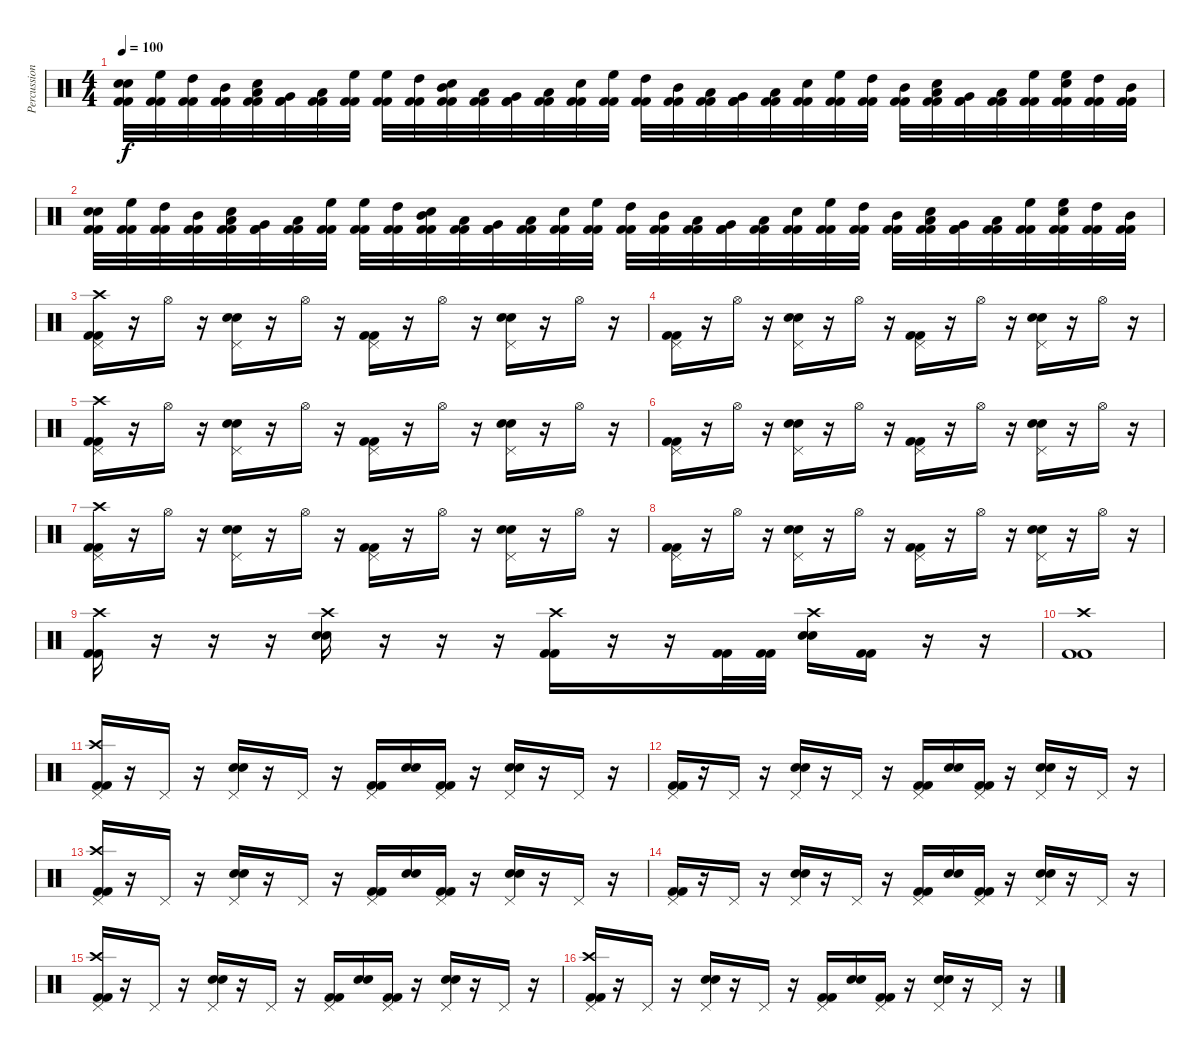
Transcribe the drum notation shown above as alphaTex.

\track ("Percussions" "Percussion") {instrument percussion}
\staff {score}
\articulation defaults
\ts (4 4)
\tempo 100
\clef neutral
\ks c
("Electric Snare (hit)" "Electric Snare (hit)" "Kick (hit) 2" "Kick (hit) 2").32{dy f} ("High Floor Tom (hit)" "Kick (hit) 2" "Kick (hit) 2").32 ("High Tom (hit)" "Kick (hit) 2" "Kick (hit) 2").32 ("Mid Tom (hit)" "Kick (hit) 2" "Kick (hit) 2").32 ("Low Tom (hit)" "Electric Snare (hit)" "Kick (hit) 2" "Kick (hit) 2").32 ("Very Low Tom (hit)" "Kick (hit) 2" "Kick (hit) 2").32 ("Low Floor Tom (hit)" "Kick (hit) 2" "Kick (hit) 2").32 ("High Floor Tom (hit)" "Kick (hit) 2" "Kick (hit) 2").32 ("High Floor Tom (hit)" "Kick (hit) 2" "Kick (hit) 2").32 ("High Tom (hit)" "Kick (hit) 2" "Kick (hit) 2").32 ("Mid Tom (hit)" "Electric Snare (hit)" "Kick (hit) 2" "Kick (hit) 2").32 ("Low Tom (hit)" "Kick (hit) 2" "Kick (hit) 2").32 ("Very Low Tom (hit)" "Kick (hit) 2" "Kick (hit) 2").32 ("Low Floor Tom (hit)" "Kick (hit) 2" "Kick (hit) 2").32 ("Electric Snare (hit)" "Kick (hit) 2" "Kick (hit) 2").32 ("High Floor Tom (hit)" "Kick (hit) 2" "Kick (hit) 2").32 ("High Tom (hit)" "Kick (hit) 2" "Kick (hit) 2").32 ("Mid Tom (hit)" "Kick (hit) 2" "Kick (hit) 2").32 ("Low Tom (hit)" "Kick (hit) 2" "Kick (hit) 2").32 ("Very Low Tom (hit)" "Kick (hit) 2" "Kick (hit) 2").32 ("Low Floor Tom (hit)" "Kick (hit) 2" "Kick (hit) 2").32 ("Electric Snare (hit)" "Kick (hit) 2" "Kick (hit) 2").32 ("High Floor Tom (hit)" "Kick (hit) 2" "Kick (hit) 2").32 ("High Tom (hit)" "Kick (hit) 2" "Kick (hit) 2").32 ("Mid Tom (hit)" "Kick (hit) 2" "Kick (hit) 2").32 ("Low Tom (hit)" "Electric Snare (hit)" "Kick (hit) 2" "Kick (hit) 2").32 ("Very Low Tom (hit)" "Kick (hit) 2" "Kick (hit) 2").32 ("Low Floor Tom (hit)" "Kick (hit) 2" "Kick (hit) 2").32 ("High Floor Tom (hit)" "Kick (hit) 2" "Kick (hit) 2").32 ("High Floor Tom (hit)" "Electric Snare (hit)" "Kick (hit) 2" "Kick (hit) 2").32 ("High Tom (hit)" "Kick (hit) 2" "Kick (hit) 2").32 ("Mid Tom (hit)" "Kick (hit) 2" "Kick (hit) 2").32 |
("Electric Snare (hit)" "Electric Snare (hit)" "Kick (hit) 2" "Kick (hit) 2").32 ("High Floor Tom (hit)" "Kick (hit) 2" "Kick (hit) 2").32 ("High Tom (hit)" "Kick (hit) 2" "Kick (hit) 2").32 ("Mid Tom (hit)" "Kick (hit) 2" "Kick (hit) 2").32 ("Low Tom (hit)" "Electric Snare (hit)" "Kick (hit) 2" "Kick (hit) 2").32 ("Very Low Tom (hit)" "Kick (hit) 2" "Kick (hit) 2").32 ("Low Floor Tom (hit)" "Kick (hit) 2" "Kick (hit) 2").32 ("High Floor Tom (hit)" "Kick (hit) 2" "Kick (hit) 2").32 ("High Floor Tom (hit)" "Kick (hit) 2" "Kick (hit) 2").32 ("High Tom (hit)" "Kick (hit) 2" "Kick (hit) 2").32 ("Mid Tom (hit)" "Electric Snare (hit)" "Kick (hit) 2" "Kick (hit) 2").32 ("Low Tom (hit)" "Kick (hit) 2" "Kick (hit) 2").32 ("Very Low Tom (hit)" "Kick (hit) 2" "Kick (hit) 2").32 ("Low Floor Tom (hit)" "Kick (hit) 2" "Kick (hit) 2").32 ("Electric Snare (hit)" "Kick (hit) 2" "Kick (hit) 2").32 ("High Floor Tom (hit)" "Kick (hit) 2" "Kick (hit) 2").32 ("High Tom (hit)" "Kick (hit) 2" "Kick (hit) 2").32 ("Mid Tom (hit)" "Kick (hit) 2" "Kick (hit) 2").32 ("Low Tom (hit)" "Kick (hit) 2" "Kick (hit) 2").32 ("Very Low Tom (hit)" "Kick (hit) 2" "Kick (hit) 2").32 ("Low Floor Tom (hit)" "Kick (hit) 2" "Kick (hit) 2").32 ("Electric Snare (hit)" "Kick (hit) 2" "Kick (hit) 2").32 ("High Floor Tom (hit)" "Kick (hit) 2" "Kick (hit) 2").32 ("High Tom (hit)" "Kick (hit) 2" "Kick (hit) 2").32 ("Mid Tom (hit)" "Kick (hit) 2" "Kick (hit) 2").32 ("Low Tom (hit)" "Electric Snare (hit)" "Kick (hit) 2" "Kick (hit) 2").32 ("Very Low Tom (hit)" "Kick (hit) 2" "Kick (hit) 2").32 ("Low Floor Tom (hit)" "Kick (hit) 2" "Kick (hit) 2").32 ("High Floor Tom (hit)" "Kick (hit) 2" "Kick (hit) 2").32 ("High Floor Tom (hit)" "Electric Snare (hit)" "Kick (hit) 2" "Kick (hit) 2").32 ("High Tom (hit)" "Kick (hit) 2" "Kick (hit) 2").32 ("Mid Tom (hit)" "Kick (hit) 2" "Kick (hit) 2").32 |
("Crash high (hit)" "Pedal Hi-Hat (hit)" "Kick (hit) 2" "Kick (hit) 2").16 r.16 "Hi-Hat (open)".16 r.16 ("Pedal Hi-Hat (hit)" "Electric Snare (hit)" "Electric Snare (hit)").16 r.16 "Hi-Hat (open)".16 r.16 ("Pedal Hi-Hat (hit)" "Kick (hit) 2" "Kick (hit) 2").16 r.16 "Hi-Hat (open)".16 r.16 ("Pedal Hi-Hat (hit)" "Electric Snare (hit)" "Electric Snare (hit)").16 r.16 "Hi-Hat (open)".16 r.16 |
("Pedal Hi-Hat (hit)" "Kick (hit) 2" "Kick (hit) 2").16 r.16 "Hi-Hat (open)".16 r.16 ("Pedal Hi-Hat (hit)" "Electric Snare (hit)" "Electric Snare (hit)").16 r.16 "Hi-Hat (open)".16 r.16 ("Pedal Hi-Hat (hit)" "Kick (hit) 2" "Kick (hit) 2").16 r.16 "Hi-Hat (open)".16 r.16 ("Pedal Hi-Hat (hit)" "Electric Snare (hit)" "Electric Snare (hit)").16 r.16 "Hi-Hat (open)".16 r.16 |
("Crash high (hit)" "Pedal Hi-Hat (hit)" "Kick (hit) 2" "Kick (hit) 2").16 r.16 "Hi-Hat (open)".16 r.16 ("Pedal Hi-Hat (hit)" "Electric Snare (hit)" "Electric Snare (hit)").16 r.16 "Hi-Hat (open)".16 r.16 ("Pedal Hi-Hat (hit)" "Kick (hit) 2" "Kick (hit) 2").16 r.16 "Hi-Hat (open)".16 r.16 ("Pedal Hi-Hat (hit)" "Electric Snare (hit)" "Electric Snare (hit)").16 r.16 "Hi-Hat (open)".16 r.16 |
("Pedal Hi-Hat (hit)" "Kick (hit) 2" "Kick (hit) 2").16 r.16 "Hi-Hat (open)".16 r.16 ("Pedal Hi-Hat (hit)" "Electric Snare (hit)" "Electric Snare (hit)").16 r.16 "Hi-Hat (open)".16 r.16 ("Pedal Hi-Hat (hit)" "Kick (hit) 2" "Kick (hit) 2").16 r.16 "Hi-Hat (open)".16 r.16 ("Pedal Hi-Hat (hit)" "Electric Snare (hit)" "Electric Snare (hit)").16 r.16 "Hi-Hat (open)".16 r.16 |
("Crash high (hit)" "Pedal Hi-Hat (hit)" "Kick (hit) 2" "Kick (hit) 2").16 r.16 "Hi-Hat (open)".16 r.16 ("Pedal Hi-Hat (hit)" "Electric Snare (hit)" "Electric Snare (hit)").16 r.16 "Hi-Hat (open)".16 r.16 ("Pedal Hi-Hat (hit)" "Kick (hit) 2" "Kick (hit) 2").16 r.16 "Hi-Hat (open)".16 r.16 ("Pedal Hi-Hat (hit)" "Electric Snare (hit)" "Electric Snare (hit)").16 r.16 "Hi-Hat (open)".16 r.16 |
("Pedal Hi-Hat (hit)" "Kick (hit) 2" "Kick (hit) 2").16 r.16 "Hi-Hat (open)".16 r.16 ("Pedal Hi-Hat (hit)" "Electric Snare (hit)" "Electric Snare (hit)").16 r.16 "Hi-Hat (open)".16 r.16 ("Pedal Hi-Hat (hit)" "Kick (hit) 2" "Kick (hit) 2").16 r.16 "Hi-Hat (open)".16 r.16 ("Pedal Hi-Hat (hit)" "Electric Snare (hit)" "Electric Snare (hit)").16 r.16 "Hi-Hat (open)".16 r.16 |
("Crash high (hit)" "Kick (hit) 2" "Kick (hit) 2").16 r.16 r.16 r.16 ("Crash high (hit)" "Electric Snare (hit)" "Electric Snare (hit)").16 r.16 r.16 r.16 ("Crash high (hit)" "Kick (hit) 2" "Kick (hit) 2").16 r.16 r.16 ("Kick (hit) 2" "Kick (hit) 2").32 ("Kick (hit) 2" "Kick (hit) 2").32 ("Crash high (hit)" "Electric Snare (hit)" "Electric Snare (hit)").16 ("Kick (hit) 2" "Kick (hit) 2").16 r.16 r.16 |
("Crash high (hit)" "Kick (hit) 2" "Kick (hit) 2").1 |
("Crash high (hit)" "Pedal Hi-Hat (hit)" "Kick (hit) 2" "Kick (hit) 2").16 r.16 "Pedal Hi-Hat (hit)".16 r.16 ("Pedal Hi-Hat (hit)" "Electric Snare (hit)" "Electric Snare (hit)").16 r.16 "Pedal Hi-Hat (hit)".16 r.16 ("Pedal Hi-Hat (hit)" "Kick (hit) 2" "Kick (hit) 2").16 ("Electric Snare (hit)" "Electric Snare (hit)").16 ("Pedal Hi-Hat (hit)" "Kick (hit) 2" "Kick (hit) 2").16 r.16 ("Pedal Hi-Hat (hit)" "Electric Snare (hit)" "Electric Snare (hit)").16 r.16 "Pedal Hi-Hat (hit)".16 r.16 |
("Pedal Hi-Hat (hit)" "Kick (hit) 2" "Kick (hit) 2").16 r.16 "Pedal Hi-Hat (hit)".16 r.16 ("Pedal Hi-Hat (hit)" "Electric Snare (hit)" "Electric Snare (hit)").16 r.16 "Pedal Hi-Hat (hit)".16 r.16 ("Pedal Hi-Hat (hit)" "Kick (hit) 2" "Kick (hit) 2").16 ("Electric Snare (hit)" "Electric Snare (hit)").16 ("Pedal Hi-Hat (hit)" "Kick (hit) 2" "Kick (hit) 2").16 r.16 ("Pedal Hi-Hat (hit)" "Electric Snare (hit)" "Electric Snare (hit)").16 r.16 "Pedal Hi-Hat (hit)".16 r.16 |
("Crash high (hit)" "Pedal Hi-Hat (hit)" "Kick (hit) 2" "Kick (hit) 2").16 r.16 "Pedal Hi-Hat (hit)".16 r.16 ("Pedal Hi-Hat (hit)" "Electric Snare (hit)" "Electric Snare (hit)").16 r.16 "Pedal Hi-Hat (hit)".16 r.16 ("Pedal Hi-Hat (hit)" "Kick (hit) 2" "Kick (hit) 2").16 ("Electric Snare (hit)" "Electric Snare (hit)").16 ("Pedal Hi-Hat (hit)" "Kick (hit) 2" "Kick (hit) 2").16 r.16 ("Pedal Hi-Hat (hit)" "Electric Snare (hit)" "Electric Snare (hit)").16 r.16 "Pedal Hi-Hat (hit)".16 r.16 |
("Pedal Hi-Hat (hit)" "Kick (hit) 2" "Kick (hit) 2").16 r.16 "Pedal Hi-Hat (hit)".16 r.16 ("Pedal Hi-Hat (hit)" "Electric Snare (hit)" "Electric Snare (hit)").16 r.16 "Pedal Hi-Hat (hit)".16 r.16 ("Pedal Hi-Hat (hit)" "Kick (hit) 2" "Kick (hit) 2").16 ("Electric Snare (hit)" "Electric Snare (hit)").16 ("Pedal Hi-Hat (hit)" "Kick (hit) 2" "Kick (hit) 2").16 r.16 ("Pedal Hi-Hat (hit)" "Electric Snare (hit)" "Electric Snare (hit)").16 r.16 "Pedal Hi-Hat (hit)".16 r.16 |
("Crash high (hit)" "Pedal Hi-Hat (hit)" "Kick (hit) 2" "Kick (hit) 2").16 r.16 "Pedal Hi-Hat (hit)".16 r.16 ("Pedal Hi-Hat (hit)" "Electric Snare (hit)" "Electric Snare (hit)").16 r.16 "Pedal Hi-Hat (hit)".16 r.16 ("Pedal Hi-Hat (hit)" "Kick (hit) 2" "Kick (hit) 2").16 ("Electric Snare (hit)" "Electric Snare (hit)").16 ("Pedal Hi-Hat (hit)" "Kick (hit) 2" "Kick (hit) 2").16 r.16 ("Pedal Hi-Hat (hit)" "Electric Snare (hit)" "Electric Snare (hit)").16 r.16 "Pedal Hi-Hat (hit)".16 r.16 |
("Crash high (hit)" "Pedal Hi-Hat (hit)" "Kick (hit) 2" "Kick (hit) 2").16 r.16 "Pedal Hi-Hat (hit)".16 r.16 ("Pedal Hi-Hat (hit)" "Electric Snare (hit)" "Electric Snare (hit)").16 r.16 "Pedal Hi-Hat (hit)".16 r.16 ("Pedal Hi-Hat (hit)" "Kick (hit) 2" "Kick (hit) 2").16 ("Electric Snare (hit)" "Electric Snare (hit)").16 ("Pedal Hi-Hat (hit)" "Kick (hit) 2" "Kick (hit) 2").16 r.16 ("Pedal Hi-Hat (hit)" "Electric Snare (hit)" "Electric Snare (hit)").16 r.16 "Pedal Hi-Hat (hit)".16 r.16
